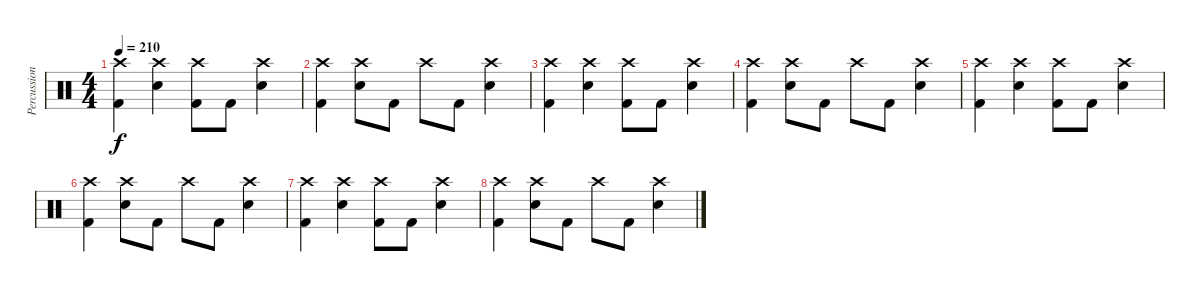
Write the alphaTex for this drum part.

\track ("Percussion" "Percussion") {instrument percussion}
\staff {score}
\articulation defaults
\ts (4 4)
\tempo 210
\clef neutral
\ks c
("Kick (hit) 2" "Crash high (hit)").4{dy f} ("Electric Snare (hit)" "Crash high (hit)").4 ("Kick (hit) 2" "Crash high (hit)").8 "Kick (hit) 2".8 ("Electric Snare (hit)" "Crash high (hit)").4 |
("Kick (hit) 2" "Crash high (hit)").4 ("Electric Snare (hit)" "Crash high (hit)").8 "Kick (hit) 2".8 "Crash high (hit)".8 "Kick (hit) 2".8 ("Electric Snare (hit)" "Crash high (hit)").4 |
("Kick (hit) 2" "Crash high (hit)").4 ("Electric Snare (hit)" "Crash high (hit)").4 ("Kick (hit) 2" "Crash high (hit)").8 "Kick (hit) 2".8 ("Electric Snare (hit)" "Crash high (hit)").4 |
("Kick (hit) 2" "Crash high (hit)").4 ("Electric Snare (hit)" "Crash high (hit)").8 "Kick (hit) 2".8 "Crash high (hit)".8 "Kick (hit) 2".8 ("Electric Snare (hit)" "Crash high (hit)").4 |
("Kick (hit) 2" "Crash high (hit)").4 ("Electric Snare (hit)" "Crash high (hit)").4 ("Kick (hit) 2" "Crash high (hit)").8 "Kick (hit) 2".8 ("Electric Snare (hit)" "Crash high (hit)").4 |
("Kick (hit) 2" "Crash high (hit)").4 ("Electric Snare (hit)" "Crash high (hit)").8 "Kick (hit) 2".8 "Crash high (hit)".8 "Kick (hit) 2".8 ("Electric Snare (hit)" "Crash high (hit)").4 |
("Kick (hit) 2" "Crash high (hit)").4 ("Electric Snare (hit)" "Crash high (hit)").4 ("Kick (hit) 2" "Crash high (hit)").8 "Kick (hit) 2".8 ("Electric Snare (hit)" "Crash high (hit)").4 |
("Kick (hit) 2" "Crash high (hit)").4 ("Electric Snare (hit)" "Crash high (hit)").8 "Kick (hit) 2".8 "Crash high (hit)".8 "Kick (hit) 2".8 ("Electric Snare (hit)" "Crash high (hit)").4
